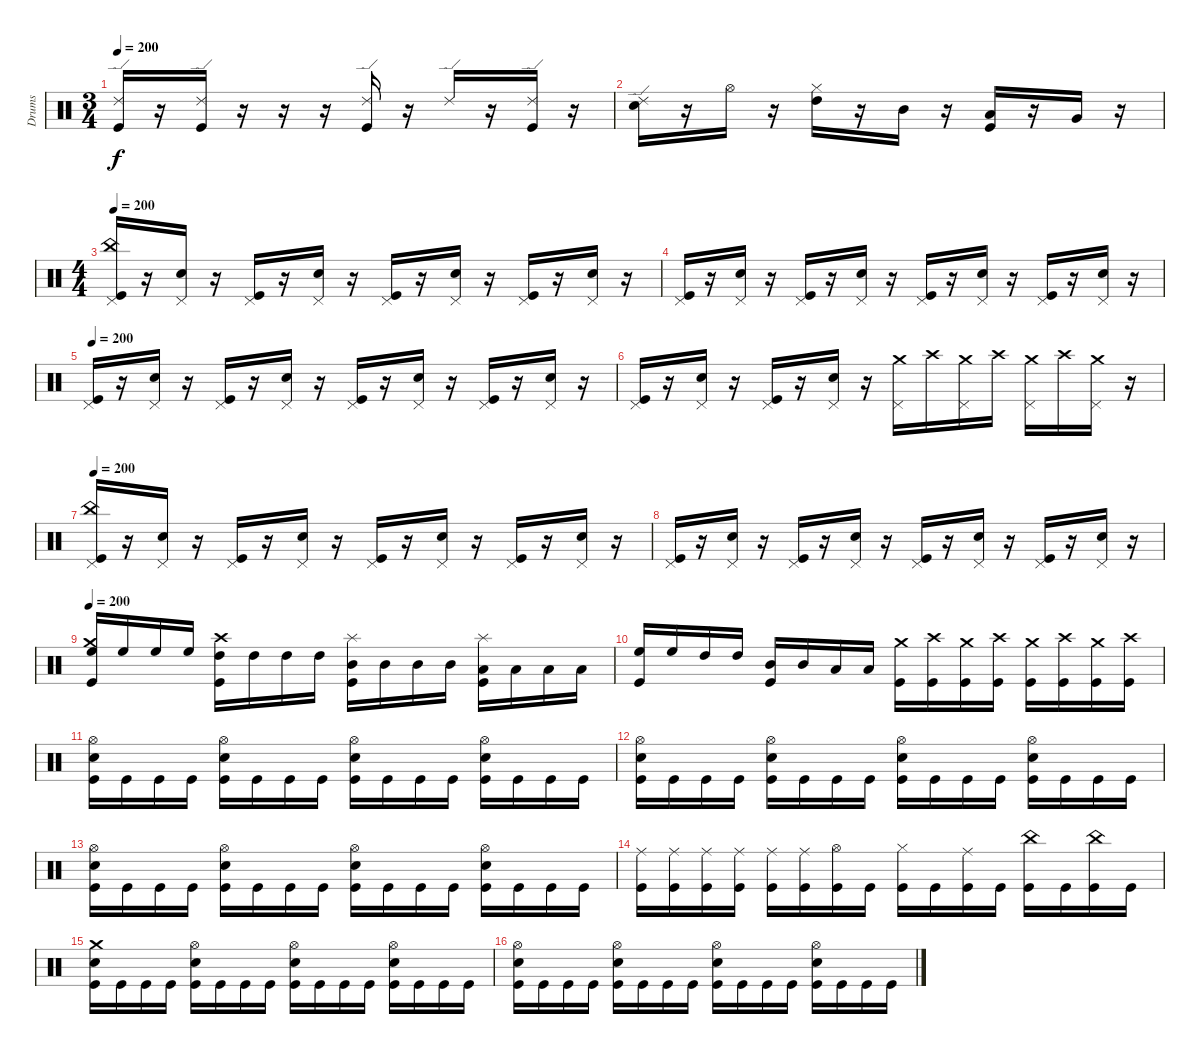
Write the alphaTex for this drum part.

\track ("Drums" "Drums") {instrument percussion}
\staff {score}
\articulation defaults
\ts (3 4)
\tempo 200
\clef neutral
\ks c
("Ride (edge) 2" "Kick (hit)").16{dy f} r.16 ("Ride (edge) 2" "Kick (hit)").16 r.16 r.16 r.16 ("Ride (edge) 2" "Kick (hit)").16 r.16 "Ride (edge) 2".16 r.16 ("Ride (edge) 2" "Kick (hit)").16 r.16 |
("Ride (edge) 2" "Electric Snare (hit)").16 r.16 "Hi-Hat (open)".16 r.16 ("High Tom (hit)" "Hi-Hat (closed)").16 r.16 "Mid Tom (hit)".16 r.16 ("Low Tom (hit)" "Kick (hit)").16 r.16 "Very Low Tom (hit)".16 r.16 |
\ts (4 4)
\tempo 200
("China (hit)" "Pedal Hi-Hat (hit)" "Kick (hit)").16 r.16 ("Pedal Hi-Hat (hit)" "Electric Snare (hit)").16 r.16 ("Pedal Hi-Hat (hit)" "Kick (hit)").16 r.16 ("Pedal Hi-Hat (hit)" "Electric Snare (hit)").16 r.16 ("Pedal Hi-Hat (hit)" "Kick (hit)").16 r.16 ("Pedal Hi-Hat (hit)" "Electric Snare (hit)").16 r.16 ("Pedal Hi-Hat (hit)" "Kick (hit)").16 r.16 ("Pedal Hi-Hat (hit)" "Electric Snare (hit)").16 r.16 |
("Pedal Hi-Hat (hit)" "Kick (hit)").16 r.16 ("Pedal Hi-Hat (hit)" "Electric Snare (hit)").16 r.16 ("Pedal Hi-Hat (hit)" "Kick (hit)").16 r.16 ("Pedal Hi-Hat (hit)" "Electric Snare (hit)").16 r.16 ("Pedal Hi-Hat (hit)" "Kick (hit)").16 r.16 ("Pedal Hi-Hat (hit)" "Electric Snare (hit)").16 r.16 ("Pedal Hi-Hat (hit)" "Kick (hit)").16 r.16 ("Pedal Hi-Hat (hit)" "Electric Snare (hit)").16 r.16 |
\tempo 200
("Pedal Hi-Hat (hit)" "Kick (hit)").16 r.16 ("Pedal Hi-Hat (hit)" "Electric Snare (hit)").16 r.16 ("Pedal Hi-Hat (hit)" "Kick (hit)").16 r.16 ("Pedal Hi-Hat (hit)" "Electric Snare (hit)").16 r.16 ("Pedal Hi-Hat (hit)" "Kick (hit)").16 r.16 ("Pedal Hi-Hat (hit)" "Electric Snare (hit)").16 r.16 ("Pedal Hi-Hat (hit)" "Kick (hit)").16 r.16 ("Pedal Hi-Hat (hit)" "Electric Snare (hit)").16 r.16 |
("Pedal Hi-Hat (hit)" "Kick (hit)").16 r.16 ("Pedal Hi-Hat (hit)" "Electric Snare (hit)").16 r.16 ("Pedal Hi-Hat (hit)" "Kick (hit)").16 r.16 ("Pedal Hi-Hat (hit)" "Electric Snare (hit)").16 r.16 ("Pedal Hi-Hat (hit)" "Crash medium (hit)").16 "Crash high (hit)".16 ("Pedal Hi-Hat (hit)" "Crash medium (hit)").16 "Crash high (hit)".16 ("Pedal Hi-Hat (hit)" "Crash medium (hit)").16 "Crash high (hit)".16 ("Pedal Hi-Hat (hit)" "Crash medium (hit)").16 r.16 |
\tempo 200
("China (hit)" "Pedal Hi-Hat (hit)" "Kick (hit)").16 r.16 ("Pedal Hi-Hat (hit)" "Electric Snare (hit)").16 r.16 ("Pedal Hi-Hat (hit)" "Kick (hit)").16 r.16 ("Pedal Hi-Hat (hit)" "Electric Snare (hit)").16 r.16 ("Pedal Hi-Hat (hit)" "Kick (hit)").16 r.16 ("Pedal Hi-Hat (hit)" "Electric Snare (hit)").16 r.16 ("Pedal Hi-Hat (hit)" "Kick (hit)").16 r.16 ("Pedal Hi-Hat (hit)" "Electric Snare (hit)").16 r.16 |
("Pedal Hi-Hat (hit)" "Kick (hit)").16 r.16 ("Pedal Hi-Hat (hit)" "Electric Snare (hit)").16 r.16 ("Pedal Hi-Hat (hit)" "Kick (hit)").16 r.16 ("Pedal Hi-Hat (hit)" "Electric Snare (hit)").16 r.16 ("Pedal Hi-Hat (hit)" "Kick (hit)").16 r.16 ("Pedal Hi-Hat (hit)" "Electric Snare (hit)").16 r.16 ("Pedal Hi-Hat (hit)" "Kick (hit)").16 r.16 ("Pedal Hi-Hat (hit)" "Electric Snare (hit)").16 r.16 |
\tempo 200
("Crash medium (hit)" "High Floor Tom (hit)" "Kick (hit)").16 "High Floor Tom (hit)".16 "High Floor Tom (hit)".16 "High Floor Tom (hit)".16 ("Crash high (hit)" "High Tom (hit)" "Kick (hit)").16 "High Tom (hit)".16 "High Tom (hit)".16 "High Tom (hit)".16 ("Splash (hit)" "Mid Tom (hit)" "Kick (hit)").16 "Mid Tom (hit)".16 "Mid Tom (hit)".16 "Mid Tom (hit)".16 ("Splash (hit)" "Low Tom (hit)" "Kick (hit)").16 "Low Tom (hit)".16 "Low Tom (hit)".16 "Low Tom (hit)".16 |
("High Floor Tom (hit)" "Kick (hit)").16 "High Floor Tom (hit)".16 "High Tom (hit)".16 "High Tom (hit)".16 ("Mid Tom (hit)" "Kick (hit)").16 "Mid Tom (hit)".16 "Low Tom (hit)".16 "Low Tom (hit)".16 ("Crash medium (hit)" "Kick (hit)").16 ("Crash high (hit)" "Kick (hit)").16 ("Crash medium (hit)" "Kick (hit)").16 ("Crash high (hit)" "Kick (hit)").16 ("Crash medium (hit)" "Kick (hit)").16 ("Crash high (hit)" "Kick (hit)").16 ("Crash medium (hit)" "Kick (hit)").16 ("Crash high (hit)" "Kick (hit)").16 |
("Electric Snare (hit)" "Hi-Hat (open)" "Kick (hit)").16 "Kick (hit)".16 "Kick (hit)".16 "Kick (hit)".16 ("Electric Snare (hit)" "Hi-Hat (open)" "Kick (hit)").16 "Kick (hit)".16 "Kick (hit)".16 "Kick (hit)".16 ("Electric Snare (hit)" "Hi-Hat (open)" "Kick (hit)").16 "Kick (hit)".16 "Kick (hit)".16 "Kick (hit)".16 ("Electric Snare (hit)" "Hi-Hat (open)" "Kick (hit)").16 "Kick (hit)".16 "Kick (hit)".16 "Kick (hit)".16 |
("Electric Snare (hit)" "Hi-Hat (open)" "Kick (hit)").16 "Kick (hit)".16 "Kick (hit)".16 "Kick (hit)".16 ("Electric Snare (hit)" "Hi-Hat (open)" "Kick (hit)").16 "Kick (hit)".16 "Kick (hit)".16 "Kick (hit)".16 ("Electric Snare (hit)" "Hi-Hat (open)" "Kick (hit)").16 "Kick (hit)".16 "Kick (hit)".16 "Kick (hit)".16 ("Electric Snare (hit)" "Hi-Hat (open)" "Kick (hit)").16 "Kick (hit)".16 "Kick (hit)".16 "Kick (hit)".16 |
("Electric Snare (hit)" "Hi-Hat (open)" "Kick (hit)").16 "Kick (hit)".16 "Kick (hit)".16 "Kick (hit)".16 ("Electric Snare (hit)" "Hi-Hat (open)" "Kick (hit)").16 "Kick (hit)".16 "Kick (hit)".16 "Kick (hit)".16 ("Electric Snare (hit)" "Hi-Hat (open)" "Kick (hit)").16 "Kick (hit)".16 "Kick (hit)".16 "Kick (hit)".16 ("Electric Snare (hit)" "Hi-Hat (open)" "Kick (hit)").16 "Kick (hit)".16 "Kick (hit)".16 "Kick (hit)".16 |
("Ride (middle)" "Kick (hit)").16 ("Ride (middle)" "Kick (hit)").16 ("Ride (middle)" "Kick (hit)").16 ("Ride (middle)" "Kick (hit)").16 ("Ride (middle)" "Kick (hit)").16 ("Ride (middle)" "Kick (hit)").16 ("Hi-Hat (open)" "Kick (hit)").16 "Kick (hit)".16 ("Hi-Hat (closed)" "Kick (hit)").16 "Kick (hit)".16 ("Ride (middle)" "Kick (hit)").16 "Kick (hit)".16 ("China (hit)" "Kick (hit)").16 "Kick (hit)".16 ("China (hit)" "Kick (hit)").16 "Kick (hit)".16 |
("Electric Snare (hit)" "Crash medium (hit)" "Kick (hit)").16 "Kick (hit)".16 "Kick (hit)".16 "Kick (hit)".16 ("Electric Snare (hit)" "Hi-Hat (open)" "Kick (hit)").16 "Kick (hit)".16 "Kick (hit)".16 "Kick (hit)".16 ("Electric Snare (hit)" "Hi-Hat (open)" "Kick (hit)").16 "Kick (hit)".16 "Kick (hit)".16 "Kick (hit)".16 ("Electric Snare (hit)" "Hi-Hat (open)" "Kick (hit)").16 "Kick (hit)".16 "Kick (hit)".16 "Kick (hit)".16 |
("Electric Snare (hit)" "Hi-Hat (open)" "Kick (hit)").16 "Kick (hit)".16 "Kick (hit)".16 "Kick (hit)".16 ("Electric Snare (hit)" "Hi-Hat (open)" "Kick (hit)").16 "Kick (hit)".16 "Kick (hit)".16 "Kick (hit)".16 ("Electric Snare (hit)" "Hi-Hat (open)" "Kick (hit)").16 "Kick (hit)".16 "Kick (hit)".16 "Kick (hit)".16 ("Electric Snare (hit)" "Hi-Hat (open)" "Kick (hit)").16 "Kick (hit)".16 "Kick (hit)".16 "Kick (hit)".16
